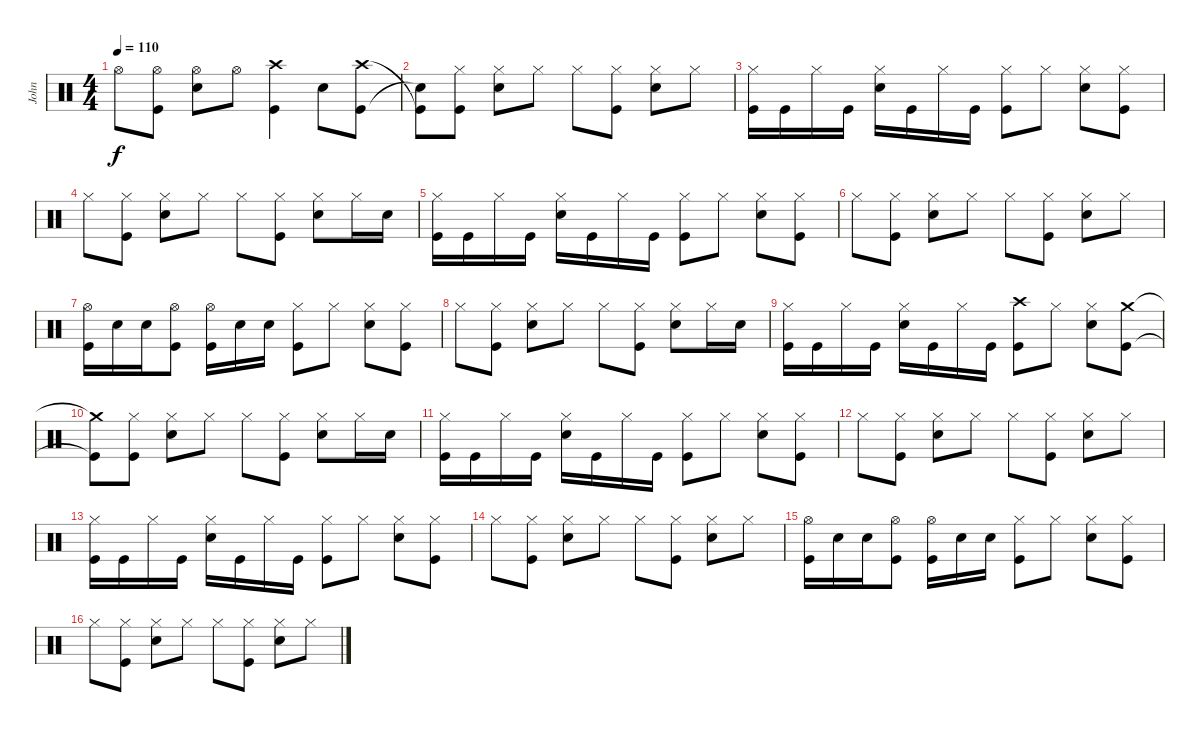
\track ("John" "John") {instrument percussion}
\staff {score}
\articulation defaults
\ts (4 4)
\tempo 110
\clef neutral
\ks c "Hi-Hat (open)".8{dy f}
("Hi-Hat (open)" "Kick (hit)").8 ("Hi-Hat (open)" "Snare (hit) 2").8 "Hi-Hat (open)".8 ("Crash high (hit)" "Kick (hit)").4 "Snare (hit) 2".8 ("Crash high (hit)" "Kick (hit)").8 |
("Kick (hit)"{t} "Snare (hit) 2"{t}).8 ("Hi-Hat (closed)" "Kick (hit)").8 ("Snare (hit) 2" "Hi-Hat (closed)").8 "Hi-Hat (closed)".8 "Hi-Hat (closed)".8 ("Hi-Hat (closed)" "Kick (hit)").8 ("Hi-Hat (closed)" "Snare (hit) 2").8 "Hi-Hat (closed)".8 |
("Hi-Hat (closed)" "Kick (hit)").16 "Kick (hit)".16 "Hi-Hat (closed)".16 "Kick (hit)".16 ("Hi-Hat (closed)" "Snare (hit) 2").16 "Kick (hit)".16 "Hi-Hat (closed)".16 "Kick (hit)".16 ("Hi-Hat (closed)" "Kick (hit)").8 "Hi-Hat (closed)".8 ("Hi-Hat (closed)" "Snare (hit) 2").8 ("Hi-Hat (closed)" "Kick (hit)").8 |
"Hi-Hat (closed)".8 ("Hi-Hat (closed)" "Kick (hit)").8 ("Snare (hit) 2" "Hi-Hat (closed)").8 "Hi-Hat (closed)".8 "Hi-Hat (closed)".8 ("Hi-Hat (closed)" "Kick (hit)").8 ("Hi-Hat (closed)" "Snare (hit) 2").8 "Hi-Hat (closed)".16 "Snare (hit) 2".16 |
("Hi-Hat (closed)" "Kick (hit)").16 "Kick (hit)".16 "Hi-Hat (closed)".16 "Kick (hit)".16 ("Hi-Hat (closed)" "Snare (hit) 2").16 "Kick (hit)".16 "Hi-Hat (closed)".16 "Kick (hit)".16 ("Hi-Hat (closed)" "Kick (hit)").8 "Hi-Hat (closed)".8 ("Hi-Hat (closed)" "Snare (hit) 2").8 ("Hi-Hat (closed)" "Kick (hit)").8 |
"Hi-Hat (closed)".8 ("Hi-Hat (closed)" "Kick (hit)").8 ("Snare (hit) 2" "Hi-Hat (closed)").8 "Hi-Hat (closed)".8 "Hi-Hat (closed)".8 ("Hi-Hat (closed)" "Kick (hit)").8 ("Hi-Hat (closed)" "Snare (hit) 2").8 "Hi-Hat (closed)".8 |
("Hi-Hat (open)" "Kick (hit)").16 "Snare (hit) 2".16 "Snare (hit) 2".16 ("Kick (hit)" "Hi-Hat (open)").8 ("Hi-Hat (open)" "Kick (hit)").16 "Snare (hit) 2".16 "Snare (hit) 2".16 ("Hi-Hat (closed)" "Kick (hit)").8 "Hi-Hat (closed)".8 ("Hi-Hat (closed)" "Snare (hit) 2").8 ("Kick (hit)" "Hi-Hat (closed)").8 |
"Hi-Hat (closed)".8 ("Hi-Hat (closed)" "Kick (hit)").8 ("Snare (hit) 2" "Hi-Hat (closed)").8 "Hi-Hat (closed)".8 "Hi-Hat (closed)".8 ("Hi-Hat (closed)" "Kick (hit)").8 ("Hi-Hat (closed)" "Snare (hit) 2").8 "Hi-Hat (closed)".16 "Snare (hit) 2".16 |
("Hi-Hat (closed)" "Kick (hit)").16 "Kick (hit)".16 "Hi-Hat (closed)".16 "Kick (hit)".16 ("Hi-Hat (closed)" "Snare (hit) 2").16 "Kick (hit)".16 "Hi-Hat (closed)".16 "Kick (hit)".16 ("Crash high (hit)" "Kick (hit)").8 "Hi-Hat (closed)".8 ("Hi-Hat (closed)" "Snare (hit) 2").8 ("Crash medium (hit)" "Kick (hit)").8 |
("Crash medium (hit)"{t} "Kick (hit)"{t}).8 ("Hi-Hat (closed)" "Kick (hit)").8 ("Snare (hit) 2" "Hi-Hat (closed)").8 "Hi-Hat (closed)".8 "Hi-Hat (closed)".8 ("Hi-Hat (closed)" "Kick (hit)").8 ("Hi-Hat (closed)" "Snare (hit) 2").8 "Hi-Hat (closed)".16 "Snare (hit) 2".16 |
("Hi-Hat (closed)" "Kick (hit)").16 "Kick (hit)".16 "Hi-Hat (closed)".16 "Kick (hit)".16 ("Hi-Hat (closed)" "Snare (hit) 2").16 "Kick (hit)".16 "Hi-Hat (closed)".16 "Kick (hit)".16 ("Hi-Hat (closed)" "Kick (hit)").8 "Hi-Hat (closed)".8 ("Hi-Hat (closed)" "Snare (hit) 2").8 ("Hi-Hat (closed)" "Kick (hit)").8 |
"Hi-Hat (closed)".8 ("Hi-Hat (closed)" "Kick (hit)").8 ("Snare (hit) 2" "Hi-Hat (closed)").8 "Hi-Hat (closed)".8 "Hi-Hat (closed)".8 ("Hi-Hat (closed)" "Kick (hit)").8 ("Hi-Hat (closed)" "Snare (hit) 2").8 "Hi-Hat (closed)".8 |
("Hi-Hat (closed)" "Kick (hit)").16 "Kick (hit)".16 "Hi-Hat (closed)".16 "Kick (hit)".16 ("Hi-Hat (closed)" "Snare (hit) 2").16 "Kick (hit)".16 "Hi-Hat (closed)".16 "Kick (hit)".16 ("Hi-Hat (closed)" "Kick (hit)").8 "Hi-Hat (closed)".8 ("Hi-Hat (closed)" "Snare (hit) 2").8 ("Hi-Hat (closed)" "Kick (hit)").8 |
"Hi-Hat (closed)".8 ("Hi-Hat (closed)" "Kick (hit)").8 ("Snare (hit) 2" "Hi-Hat (closed)").8 "Hi-Hat (closed)".8 "Hi-Hat (closed)".8 ("Hi-Hat (closed)" "Kick (hit)").8 ("Hi-Hat (closed)" "Snare (hit) 2").8 "Hi-Hat (closed)".8 |
("Hi-Hat (open)" "Kick (hit)").16 "Snare (hit) 2".16 "Snare (hit) 2".16 ("Kick (hit)" "Hi-Hat (open)").8 ("Hi-Hat (open)" "Kick (hit)").16 "Snare (hit) 2".16 "Snare (hit) 2".16 ("Hi-Hat (closed)" "Kick (hit)").8 "Hi-Hat (closed)".8 ("Hi-Hat (closed)" "Snare (hit) 2").8 ("Kick (hit)" "Hi-Hat (closed)").8 |
"Hi-Hat (closed)".8 ("Hi-Hat (closed)" "Kick (hit)").8 ("Snare (hit) 2" "Hi-Hat (closed)").8 "Hi-Hat (closed)".8 "Hi-Hat (closed)".8 ("Hi-Hat (closed)" "Kick (hit)").8 ("Hi-Hat (closed)" "Snare (hit) 2").8 "Hi-Hat (closed)".8
